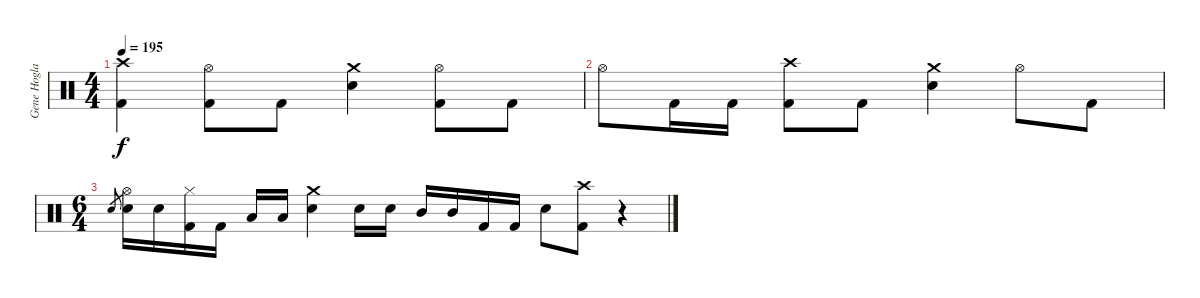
\track ("Gene Hoglan" "Gene Hogla") {instrument percussion}
\staff {score}
\articulation defaults
\ts (4 4)
\tempo 195
\clef neutral
\ks c
("Crash high (hit)" "Kick (hit) 2").4{dy f} ("Hi-Hat (open)" "Kick (hit) 2").8 "Kick (hit) 2".8 ("Crash medium (hit)" "Electric Snare (hit)").4 ("Hi-Hat (open)" "Kick (hit) 2").8 "Kick (hit) 2".8 |
"Hi-Hat (open)".8 "Kick (hit) 2".16 "Kick (hit) 2".16 ("Crash high (hit)" "Kick (hit) 2").8 "Kick (hit) 2".8 ("Crash medium (hit)" "Electric Snare (hit)").4 "Hi-Hat (open)".8 "Kick (hit) 2".8 |
\ts (6 4)
"Electric Snare (hit)".8{gr} ("Hi-Hat (open)" "Electric Snare (hit)").16 "Electric Snare (hit)".16 ("Hi-Hat (closed)" "Kick (hit) 2").16 "Kick (hit) 2".16 "Low Tom (hit)".16 "Low Tom (hit)".16 ("Crash medium (hit)" "Electric Snare (hit)").4 "Electric Snare (hit)".16 "Electric Snare (hit)".16 "Mid Tom (hit)".16 "Mid Tom (hit)".16 "Kick (hit) 2".16 "Kick (hit) 2".16 "Electric Snare (hit)".8 ("Crash high (hit)" "Kick (hit) 2").8 r.4
